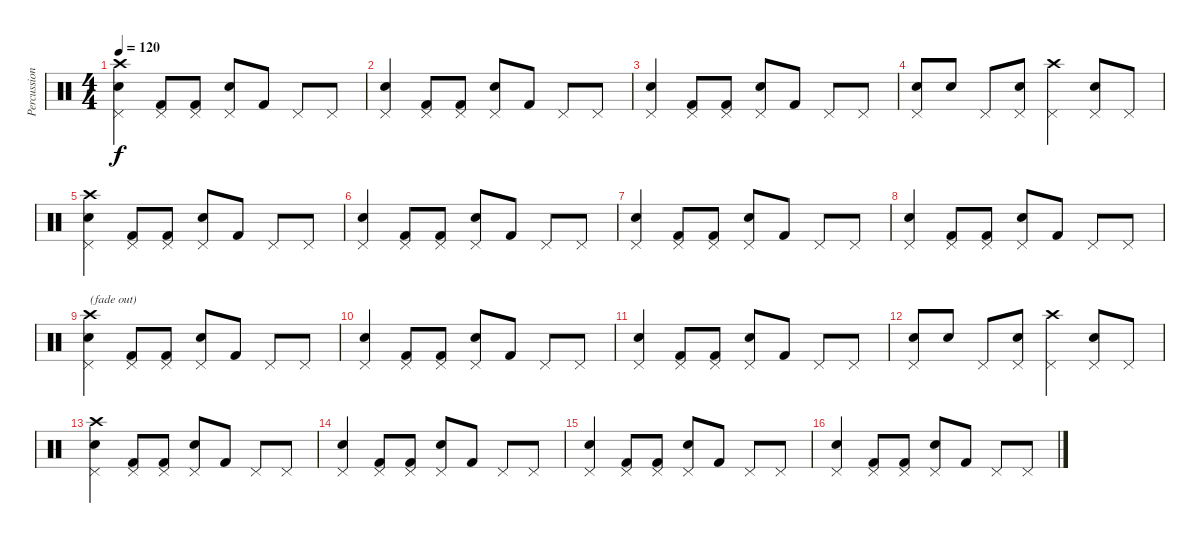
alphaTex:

\track ("Percussion" "Percussion") {instrument percussion}
\staff {score}
\articulation defaults
\ts (4 4)
\tempo 120
\clef neutral
\ks c
("Pedal Hi-Hat (hit)" "Electric Snare (hit)" "Crash high (hit)").4{dy f} ("Pedal Hi-Hat (hit)" "Kick (hit) 2").8 ("Pedal Hi-Hat (hit)" "Kick (hit) 2").8 ("Pedal Hi-Hat (hit)" "Electric Snare (hit)").8 "Kick (hit) 2".8 "Pedal Hi-Hat (hit)".8 "Pedal Hi-Hat (hit)".8 |
("Pedal Hi-Hat (hit)" "Electric Snare (hit)").4 ("Pedal Hi-Hat (hit)" "Kick (hit) 2").8 ("Pedal Hi-Hat (hit)" "Kick (hit) 2").8 ("Pedal Hi-Hat (hit)" "Electric Snare (hit)").8 "Kick (hit) 2".8 "Pedal Hi-Hat (hit)".8 "Pedal Hi-Hat (hit)".8 |
("Pedal Hi-Hat (hit)" "Electric Snare (hit)").4 ("Pedal Hi-Hat (hit)" "Kick (hit) 2").8 ("Pedal Hi-Hat (hit)" "Kick (hit) 2").8 ("Pedal Hi-Hat (hit)" "Electric Snare (hit)").8 "Kick (hit) 2".8 "Pedal Hi-Hat (hit)".8 "Pedal Hi-Hat (hit)".8 |
("Pedal Hi-Hat (hit)" "Electric Snare (hit)").8 "Electric Snare (hit)".8 "Pedal Hi-Hat (hit)".8 ("Pedal Hi-Hat (hit)" "Electric Snare (hit)").8 ("Pedal Hi-Hat (hit)" "Crash high (hit)").4 ("Pedal Hi-Hat (hit)" "Electric Snare (hit)").8 "Pedal Hi-Hat (hit)".8 |
("Pedal Hi-Hat (hit)" "Electric Snare (hit)" "Crash high (hit)").4 ("Pedal Hi-Hat (hit)" "Kick (hit) 2").8 ("Pedal Hi-Hat (hit)" "Kick (hit) 2").8 ("Pedal Hi-Hat (hit)" "Electric Snare (hit)").8 "Kick (hit) 2".8 "Pedal Hi-Hat (hit)".8 "Pedal Hi-Hat (hit)".8 |
("Pedal Hi-Hat (hit)" "Electric Snare (hit)").4 ("Pedal Hi-Hat (hit)" "Kick (hit) 2").8 ("Pedal Hi-Hat (hit)" "Kick (hit) 2").8 ("Pedal Hi-Hat (hit)" "Electric Snare (hit)").8 "Kick (hit) 2".8 "Pedal Hi-Hat (hit)".8 "Pedal Hi-Hat (hit)".8 |
("Pedal Hi-Hat (hit)" "Electric Snare (hit)").4 ("Pedal Hi-Hat (hit)" "Kick (hit) 2").8 ("Pedal Hi-Hat (hit)" "Kick (hit) 2").8 ("Pedal Hi-Hat (hit)" "Electric Snare (hit)").8 "Kick (hit) 2".8 "Pedal Hi-Hat (hit)".8 "Pedal Hi-Hat (hit)".8 |
("Pedal Hi-Hat (hit)" "Electric Snare (hit)").4 ("Pedal Hi-Hat (hit)" "Kick (hit) 2").8 ("Pedal Hi-Hat (hit)" "Kick (hit) 2").8 ("Pedal Hi-Hat (hit)" "Electric Snare (hit)").8 "Kick (hit) 2".8 "Pedal Hi-Hat (hit)".8 "Pedal Hi-Hat (hit)".8 |
("Pedal Hi-Hat (hit)" "Electric Snare (hit)" "Crash high (hit)").4{txt "(fade out)" volume 12} ("Pedal Hi-Hat (hit)" "Kick (hit) 2").8 ("Pedal Hi-Hat (hit)" "Kick (hit) 2").8 ("Pedal Hi-Hat (hit)" "Electric Snare (hit)").8 "Kick (hit) 2".8 "Pedal Hi-Hat (hit)".8 "Pedal Hi-Hat (hit)".8 |
("Pedal Hi-Hat (hit)" "Electric Snare (hit)").4 ("Pedal Hi-Hat (hit)" "Kick (hit) 2").8 ("Pedal Hi-Hat (hit)" "Kick (hit) 2").8 ("Pedal Hi-Hat (hit)" "Electric Snare (hit)").8 "Kick (hit) 2".8 "Pedal Hi-Hat (hit)".8 "Pedal Hi-Hat (hit)".8 |
("Pedal Hi-Hat (hit)" "Electric Snare (hit)").4{volume 8} ("Pedal Hi-Hat (hit)" "Kick (hit) 2").8 ("Pedal Hi-Hat (hit)" "Kick (hit) 2").8 ("Pedal Hi-Hat (hit)" "Electric Snare (hit)").8 "Kick (hit) 2".8 "Pedal Hi-Hat (hit)".8 "Pedal Hi-Hat (hit)".8 |
("Pedal Hi-Hat (hit)" "Electric Snare (hit)").8 "Electric Snare (hit)".8 "Pedal Hi-Hat (hit)".8 ("Pedal Hi-Hat (hit)" "Electric Snare (hit)").8 ("Pedal Hi-Hat (hit)" "Crash high (hit)").4 ("Pedal Hi-Hat (hit)" "Electric Snare (hit)").8 "Pedal Hi-Hat (hit)".8 |
("Pedal Hi-Hat (hit)" "Electric Snare (hit)" "Crash high (hit)").4{volume 4} ("Pedal Hi-Hat (hit)" "Kick (hit) 2").8 ("Pedal Hi-Hat (hit)" "Kick (hit) 2").8 ("Pedal Hi-Hat (hit)" "Electric Snare (hit)").8 "Kick (hit) 2".8 "Pedal Hi-Hat (hit)".8 "Pedal Hi-Hat (hit)".8 |
("Pedal Hi-Hat (hit)" "Electric Snare (hit)").4 ("Pedal Hi-Hat (hit)" "Kick (hit) 2").8 ("Pedal Hi-Hat (hit)" "Kick (hit) 2").8 ("Pedal Hi-Hat (hit)" "Electric Snare (hit)").8 "Kick (hit) 2".8 "Pedal Hi-Hat (hit)".8 "Pedal Hi-Hat (hit)".8 |
("Pedal Hi-Hat (hit)" "Electric Snare (hit)").4{volume 0} ("Pedal Hi-Hat (hit)" "Kick (hit) 2").8 ("Pedal Hi-Hat (hit)" "Kick (hit) 2").8 ("Pedal Hi-Hat (hit)" "Electric Snare (hit)").8 "Kick (hit) 2".8 "Pedal Hi-Hat (hit)".8 "Pedal Hi-Hat (hit)".8 |
("Pedal Hi-Hat (hit)" "Electric Snare (hit)").4 ("Pedal Hi-Hat (hit)" "Kick (hit) 2").8 ("Pedal Hi-Hat (hit)" "Kick (hit) 2").8 ("Pedal Hi-Hat (hit)" "Electric Snare (hit)").8 "Kick (hit) 2".8 "Pedal Hi-Hat (hit)".8 "Pedal Hi-Hat (hit)".8
